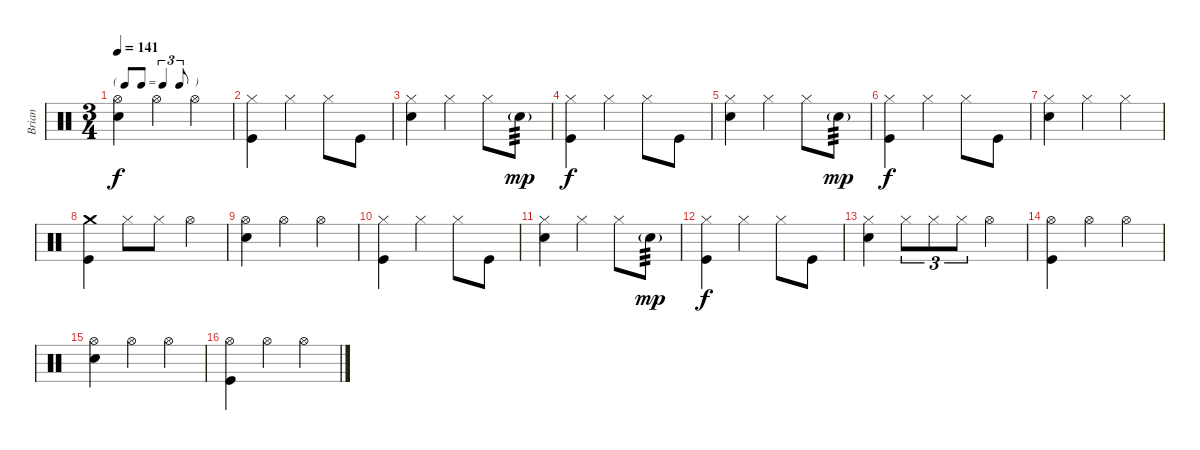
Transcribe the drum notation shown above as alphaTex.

\track ("Brian" "Brian") {instrument percussion}
\staff {score}
\articulation defaults
\ts (3 4)
\tf triplet8th
\tempo 141
\clef neutral
\ks c
("Hi-Hat (open)" "Electric Snare (hit)").4{dy f} "Hi-Hat (open)".4 "Hi-Hat (open)".4 |
("Hi-Hat (closed)" "Kick (hit)").4{volume 16} "Hi-Hat (closed)".4 "Hi-Hat (closed)".8 "Kick (hit)".8 |
("Hi-Hat (closed)" "Electric Snare (hit)").4 "Hi-Hat (closed)".4 "Hi-Hat (closed)".8 "Electric Snare (hit)"{g}.8{tp 3 dy mp volume 7} |
("Hi-Hat (closed)" "Kick (hit)").4{dy f volume 16} "Hi-Hat (closed)".4 "Hi-Hat (closed)".8 "Kick (hit)".8 |
("Hi-Hat (closed)" "Electric Snare (hit)").4 "Hi-Hat (closed)".4 "Hi-Hat (closed)".8 "Electric Snare (hit)"{g}.8{tp 3 dy mp volume 7} |
("Hi-Hat (closed)" "Kick (hit)").4{dy f volume 16} "Hi-Hat (closed)".4 "Hi-Hat (closed)".8 "Kick (hit)".8 |
("Hi-Hat (closed)" "Electric Snare (hit)").4 "Hi-Hat (closed)".4 "Hi-Hat (closed)".4 |
("Crash medium (hit)" "Kick (hit)").4 "Hi-Hat (closed)".8 "Hi-Hat (closed)".8 "Hi-Hat (open)".4 |
("Hi-Hat (open)" "Electric Snare (hit)").4 "Hi-Hat (open)".4 "Hi-Hat (open)".4 |
("Hi-Hat (closed)" "Kick (hit)").4 "Hi-Hat (closed)".4 "Hi-Hat (closed)".8 "Kick (hit)".8 |
("Hi-Hat (closed)" "Electric Snare (hit)").4 "Hi-Hat (closed)".4 "Hi-Hat (closed)".8 "Electric Snare (hit)"{g}.8{tp 3 dy mp volume 7} |
("Hi-Hat (closed)" "Kick (hit)").4{dy f volume 16} "Hi-Hat (closed)".4 "Hi-Hat (closed)".8 "Kick (hit)".8 |
("Hi-Hat (closed)" "Electric Snare (hit)").4 "Hi-Hat (closed)".8{tu (3 2)} "Hi-Hat (closed)".8{tu (3 2)} "Hi-Hat (closed)".8{tu (3 2)} "Hi-Hat (open)".4 |
("Hi-Hat (open)" "Kick (hit)").4{volume 16} "Hi-Hat (open)".4 "Hi-Hat (open)".4 |
("Hi-Hat (open)" "Electric Snare (hit)").4 "Hi-Hat (open)".4 "Hi-Hat (open)".4 |
("Hi-Hat (open)" "Kick (hit)").4{volume 16} "Hi-Hat (open)".4 "Hi-Hat (open)".4
